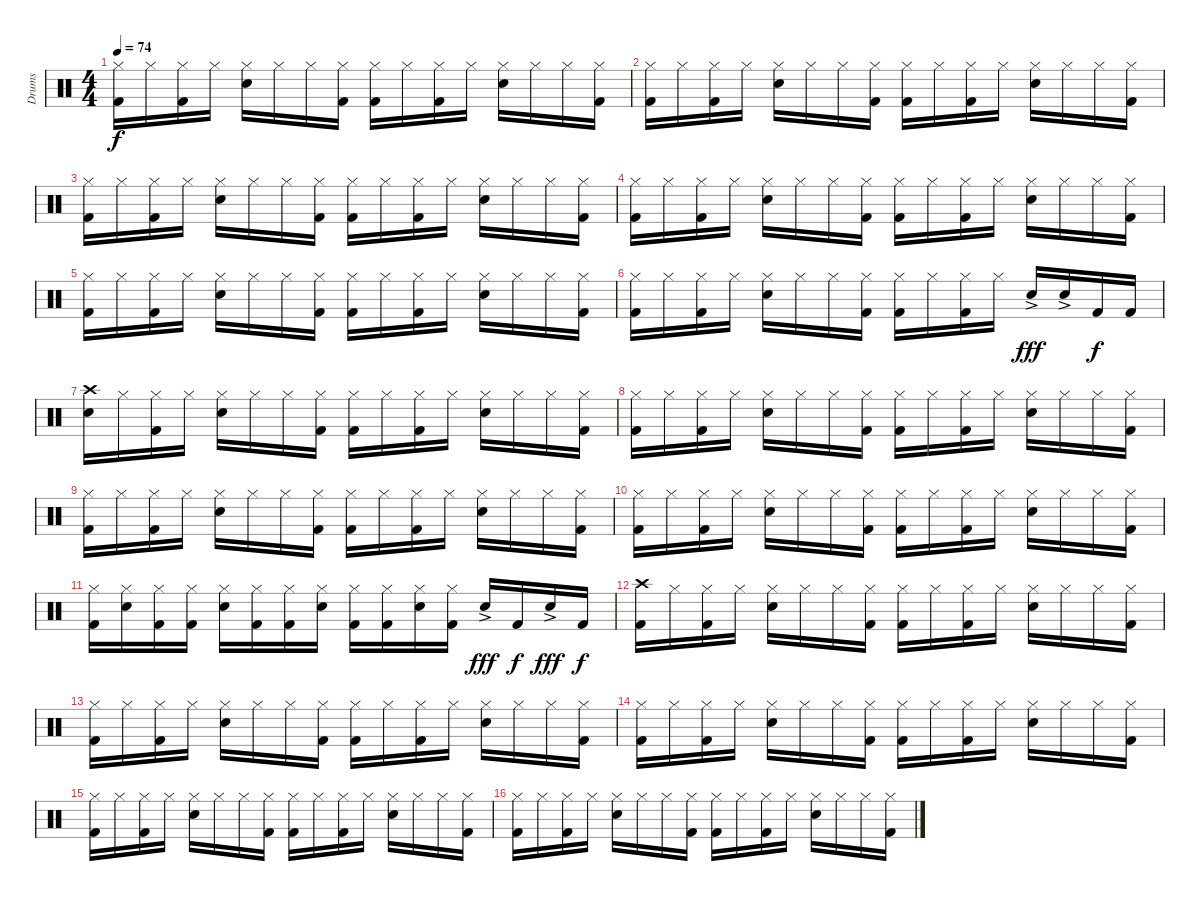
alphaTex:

\track ("Drums" "Drums") {instrument percussion}
\staff {score}
\articulation defaults
\ts (4 4)
\tempo 74
\clef neutral
\ks aminor
("Hi-Hat (closed)" "Kick (hit) 2").16{dy f} "Hi-Hat (closed)".16 ("Hi-Hat (closed)" "Kick (hit) 2").16 "Hi-Hat (closed)".16 ("Hi-Hat (closed)" "Snare (hit) 2").16 "Hi-Hat (closed)".16 "Hi-Hat (closed)".16 ("Hi-Hat (closed)" "Kick (hit) 2").16 ("Hi-Hat (closed)" "Kick (hit) 2").16 "Hi-Hat (closed)".16 ("Hi-Hat (closed)" "Kick (hit) 2").16 "Hi-Hat (closed)".16 ("Hi-Hat (closed)" "Snare (hit) 2").16 "Hi-Hat (closed)".16 "Hi-Hat (closed)".16 ("Hi-Hat (closed)" "Kick (hit) 2").16 |
("Hi-Hat (closed)" "Kick (hit) 2").16 "Hi-Hat (closed)".16 ("Hi-Hat (closed)" "Kick (hit) 2").16 "Hi-Hat (closed)".16 ("Hi-Hat (closed)" "Snare (hit) 2").16 "Hi-Hat (closed)".16 "Hi-Hat (closed)".16 ("Hi-Hat (closed)" "Kick (hit) 2").16 ("Hi-Hat (closed)" "Kick (hit) 2").16 "Hi-Hat (closed)".16 ("Hi-Hat (closed)" "Kick (hit) 2").16 "Hi-Hat (closed)".16 ("Hi-Hat (closed)" "Snare (hit) 2").16 "Hi-Hat (closed)".16 "Hi-Hat (closed)".16 ("Hi-Hat (closed)" "Kick (hit) 2").16 |
("Hi-Hat (closed)" "Kick (hit) 2").16 "Hi-Hat (closed)".16 ("Hi-Hat (closed)" "Kick (hit) 2").16 "Hi-Hat (closed)".16 ("Hi-Hat (closed)" "Snare (hit) 2").16 "Hi-Hat (closed)".16 "Hi-Hat (closed)".16 ("Hi-Hat (closed)" "Kick (hit) 2").16 ("Hi-Hat (closed)" "Kick (hit) 2").16 "Hi-Hat (closed)".16 ("Hi-Hat (closed)" "Kick (hit) 2").16 "Hi-Hat (closed)".16 ("Hi-Hat (closed)" "Snare (hit) 2").16 "Hi-Hat (closed)".16 "Hi-Hat (closed)".16 ("Hi-Hat (closed)" "Kick (hit) 2").16 |
("Hi-Hat (closed)" "Kick (hit) 2").16 "Hi-Hat (closed)".16 ("Hi-Hat (closed)" "Kick (hit) 2").16 "Hi-Hat (closed)".16 ("Hi-Hat (closed)" "Snare (hit) 2").16 "Hi-Hat (closed)".16 "Hi-Hat (closed)".16 ("Hi-Hat (closed)" "Kick (hit) 2").16 ("Hi-Hat (closed)" "Kick (hit) 2").16 "Hi-Hat (closed)".16 ("Hi-Hat (closed)" "Kick (hit) 2").16 "Hi-Hat (closed)".16 ("Hi-Hat (closed)" "Snare (hit) 2").16 "Hi-Hat (closed)".16 "Hi-Hat (closed)".16 ("Hi-Hat (closed)" "Kick (hit) 2").16 |
("Hi-Hat (closed)" "Kick (hit) 2").16 "Hi-Hat (closed)".16 ("Hi-Hat (closed)" "Kick (hit) 2").16 "Hi-Hat (closed)".16 ("Hi-Hat (closed)" "Snare (hit) 2").16 "Hi-Hat (closed)".16 "Hi-Hat (closed)".16 ("Hi-Hat (closed)" "Kick (hit) 2").16 ("Hi-Hat (closed)" "Kick (hit) 2").16 "Hi-Hat (closed)".16 ("Hi-Hat (closed)" "Kick (hit) 2").16 "Hi-Hat (closed)".16 ("Hi-Hat (closed)" "Snare (hit) 2").16 "Hi-Hat (closed)".16 "Hi-Hat (closed)".16 ("Hi-Hat (closed)" "Kick (hit) 2").16 |
("Hi-Hat (closed)" "Kick (hit) 2").16 "Hi-Hat (closed)".16 ("Hi-Hat (closed)" "Kick (hit) 2").16 "Hi-Hat (closed)".16 ("Hi-Hat (closed)" "Snare (hit) 2").16 "Hi-Hat (closed)".16 "Hi-Hat (closed)".16 ("Hi-Hat (closed)" "Kick (hit) 2").16 ("Hi-Hat (closed)" "Kick (hit) 2").16 "Hi-Hat (closed)".16 ("Hi-Hat (closed)" "Kick (hit) 2").16 "Hi-Hat (closed)".16 "Snare (hit) 2"{ac}.16{dy fff} "Snare (hit) 2"{ac}.16 "Kick (hit) 2".16{dy f} "Kick (hit) 2".16 |
("Crash high (hit)" "Snare (hit) 2").16 "Hi-Hat (closed)".16 ("Hi-Hat (closed)" "Kick (hit) 2").16 "Hi-Hat (closed)".16 ("Hi-Hat (closed)" "Snare (hit) 2").16 "Hi-Hat (closed)".16 "Hi-Hat (closed)".16 ("Hi-Hat (closed)" "Kick (hit) 2").16 ("Hi-Hat (closed)" "Kick (hit) 2").16 "Hi-Hat (closed)".16 ("Hi-Hat (closed)" "Kick (hit) 2").16 "Hi-Hat (closed)".16 ("Hi-Hat (closed)" "Snare (hit) 2").16 "Hi-Hat (closed)".16 "Hi-Hat (closed)".16 ("Hi-Hat (closed)" "Kick (hit) 2").16 |
("Hi-Hat (closed)" "Kick (hit) 2").16 "Hi-Hat (closed)".16 ("Hi-Hat (closed)" "Kick (hit) 2").16 "Hi-Hat (closed)".16 ("Hi-Hat (closed)" "Snare (hit) 2").16 "Hi-Hat (closed)".16 "Hi-Hat (closed)".16 ("Hi-Hat (closed)" "Kick (hit) 2").16 ("Hi-Hat (closed)" "Kick (hit) 2").16 "Hi-Hat (closed)".16 ("Hi-Hat (closed)" "Kick (hit) 2").16 "Hi-Hat (closed)".16 ("Hi-Hat (closed)" "Snare (hit) 2").16 "Hi-Hat (closed)".16 "Hi-Hat (closed)".16 ("Hi-Hat (closed)" "Kick (hit) 2").16 |
("Hi-Hat (closed)" "Kick (hit) 2").16 "Hi-Hat (closed)".16 ("Hi-Hat (closed)" "Kick (hit) 2").16 "Hi-Hat (closed)".16 ("Hi-Hat (closed)" "Snare (hit) 2").16 "Hi-Hat (closed)".16 "Hi-Hat (closed)".16 ("Hi-Hat (closed)" "Kick (hit) 2").16 ("Hi-Hat (closed)" "Kick (hit) 2").16 "Hi-Hat (closed)".16 ("Hi-Hat (closed)" "Kick (hit) 2").16 "Hi-Hat (closed)".16 ("Hi-Hat (closed)" "Snare (hit) 2").16 "Hi-Hat (closed)".16 "Hi-Hat (closed)".16 ("Hi-Hat (closed)" "Kick (hit) 2").16 |
("Hi-Hat (closed)" "Kick (hit) 2").16 "Hi-Hat (closed)".16 ("Hi-Hat (closed)" "Kick (hit) 2").16 "Hi-Hat (closed)".16 ("Hi-Hat (closed)" "Snare (hit) 2").16 "Hi-Hat (closed)".16 "Hi-Hat (closed)".16 ("Hi-Hat (closed)" "Kick (hit) 2").16 ("Hi-Hat (closed)" "Kick (hit) 2").16 "Hi-Hat (closed)".16 ("Hi-Hat (closed)" "Kick (hit) 2").16 "Hi-Hat (closed)".16 ("Hi-Hat (closed)" "Snare (hit) 2").16 "Hi-Hat (closed)".16 "Hi-Hat (closed)".16 ("Hi-Hat (closed)" "Kick (hit) 2").16 |
("Hi-Hat (closed)" "Kick (hit) 2").16 ("Hi-Hat (closed)" "Snare (hit) 2").16 ("Hi-Hat (closed)" "Kick (hit) 2").16 ("Hi-Hat (closed)" "Kick (hit) 2").16 ("Hi-Hat (closed)" "Snare (hit) 2").16 ("Hi-Hat (closed)" "Kick (hit) 2").16 ("Hi-Hat (closed)" "Kick (hit) 2").16 ("Hi-Hat (closed)" "Snare (hit) 2").16 ("Hi-Hat (closed)" "Kick (hit) 2").16 ("Hi-Hat (closed)" "Kick (hit) 2").16 ("Hi-Hat (closed)" "Snare (hit) 2").16 ("Hi-Hat (closed)" "Kick (hit) 2").16 "Snare (hit) 2"{ac}.16{dy fff} "Kick (hit) 2".16{dy f} "Snare (hit) 2"{ac}.16{dy fff} "Kick (hit) 2".16{dy f} |
("Crash high (hit)" "Kick (hit) 2").16 "Hi-Hat (closed)".16 ("Hi-Hat (closed)" "Kick (hit) 2").16 "Hi-Hat (closed)".16 ("Hi-Hat (closed)" "Snare (hit) 2").16 "Hi-Hat (closed)".16 "Hi-Hat (closed)".16 ("Hi-Hat (closed)" "Kick (hit) 2").16 ("Hi-Hat (closed)" "Kick (hit) 2").16 "Hi-Hat (closed)".16 ("Hi-Hat (closed)" "Kick (hit) 2").16 "Hi-Hat (closed)".16 ("Hi-Hat (closed)" "Snare (hit) 2").16 "Hi-Hat (closed)".16 "Hi-Hat (closed)".16 ("Hi-Hat (closed)" "Kick (hit) 2").16 |
("Hi-Hat (closed)" "Kick (hit) 2").16 "Hi-Hat (closed)".16 ("Hi-Hat (closed)" "Kick (hit) 2").16 "Hi-Hat (closed)".16 ("Hi-Hat (closed)" "Snare (hit) 2").16 "Hi-Hat (closed)".16 "Hi-Hat (closed)".16 ("Hi-Hat (closed)" "Kick (hit) 2").16 ("Hi-Hat (closed)" "Kick (hit) 2").16 "Hi-Hat (closed)".16 ("Hi-Hat (closed)" "Kick (hit) 2").16 "Hi-Hat (closed)".16 ("Hi-Hat (closed)" "Snare (hit) 2").16 "Hi-Hat (closed)".16 "Hi-Hat (closed)".16 ("Hi-Hat (closed)" "Kick (hit) 2").16 |
("Hi-Hat (closed)" "Kick (hit) 2").16 "Hi-Hat (closed)".16 ("Hi-Hat (closed)" "Kick (hit) 2").16 "Hi-Hat (closed)".16 ("Hi-Hat (closed)" "Snare (hit) 2").16 "Hi-Hat (closed)".16 "Hi-Hat (closed)".16 ("Hi-Hat (closed)" "Kick (hit) 2").16 ("Hi-Hat (closed)" "Kick (hit) 2").16 "Hi-Hat (closed)".16 ("Hi-Hat (closed)" "Kick (hit) 2").16 "Hi-Hat (closed)".16 ("Hi-Hat (closed)" "Snare (hit) 2").16 "Hi-Hat (closed)".16 "Hi-Hat (closed)".16 ("Hi-Hat (closed)" "Kick (hit) 2").16 |
("Hi-Hat (closed)" "Kick (hit) 2").16 "Hi-Hat (closed)".16 ("Hi-Hat (closed)" "Kick (hit) 2").16 "Hi-Hat (closed)".16 ("Hi-Hat (closed)" "Snare (hit) 2").16 "Hi-Hat (closed)".16 "Hi-Hat (closed)".16 ("Hi-Hat (closed)" "Kick (hit) 2").16 ("Hi-Hat (closed)" "Kick (hit) 2").16 "Hi-Hat (closed)".16 ("Hi-Hat (closed)" "Kick (hit) 2").16 "Hi-Hat (closed)".16 ("Hi-Hat (closed)" "Snare (hit) 2").16 "Hi-Hat (closed)".16 "Hi-Hat (closed)".16 ("Hi-Hat (closed)" "Kick (hit) 2").16 |
("Hi-Hat (closed)" "Kick (hit) 2").16 "Hi-Hat (closed)".16 ("Hi-Hat (closed)" "Kick (hit) 2").16 "Hi-Hat (closed)".16 ("Hi-Hat (closed)" "Snare (hit) 2").16 "Hi-Hat (closed)".16 "Hi-Hat (closed)".16 ("Hi-Hat (closed)" "Kick (hit) 2").16 ("Hi-Hat (closed)" "Kick (hit) 2").16 "Hi-Hat (closed)".16 ("Hi-Hat (closed)" "Kick (hit) 2").16 "Hi-Hat (closed)".16 ("Hi-Hat (closed)" "Snare (hit) 2").16 "Hi-Hat (closed)".16 "Hi-Hat (closed)".16 ("Hi-Hat (closed)" "Kick (hit) 2").16
